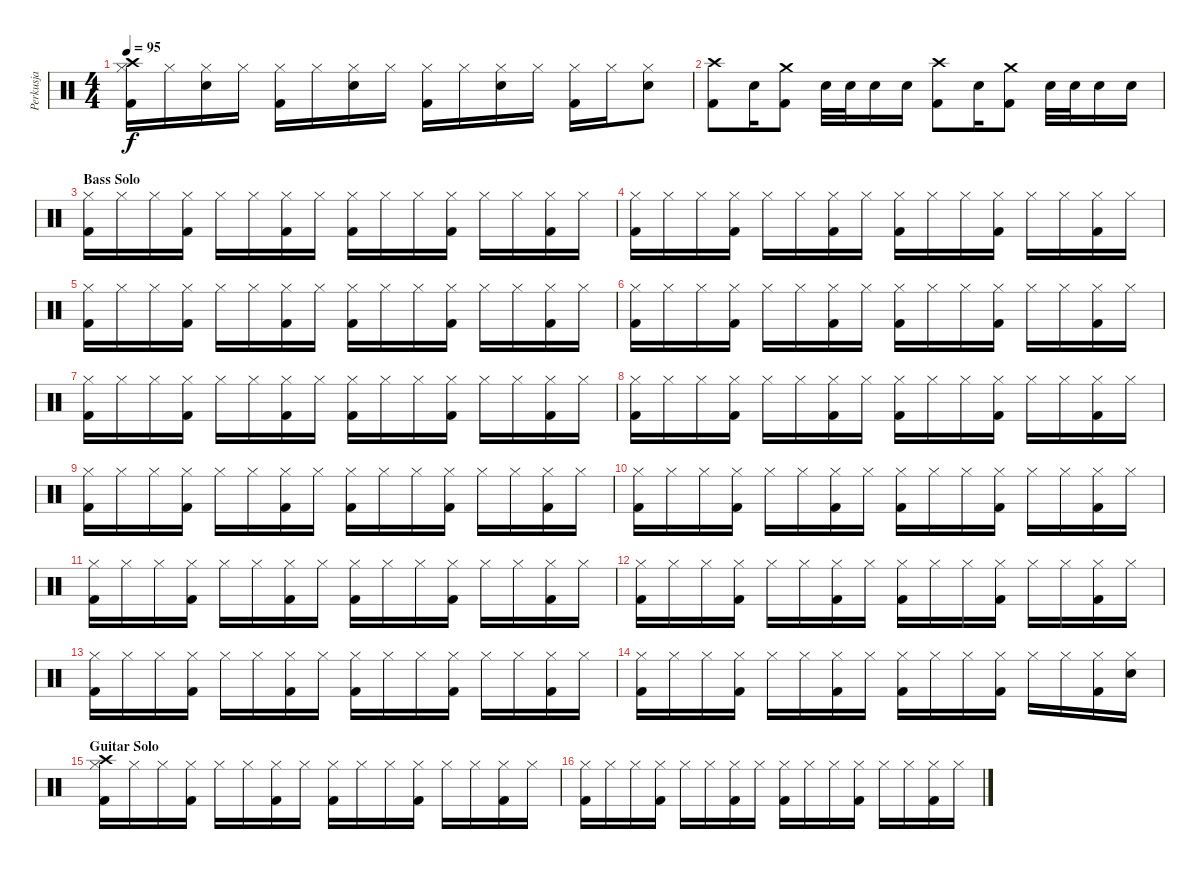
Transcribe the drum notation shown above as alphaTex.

\track ("Perkusja" "Perkusja") {instrument percussion}
\staff {score}
\articulation defaults
\ts (4 4)
\tempo 95
\clef neutral
\ks c
("Hi-Hat (closed)" "Kick (hit) 2" "Crash high (hit)").16{dy f} "Hi-Hat (closed)".16 ("Hi-Hat (closed)" "Snare (hit) 2").16 "Hi-Hat (closed)".16 ("Hi-Hat (closed)" "Kick (hit) 2").16 "Hi-Hat (closed)".16 ("Hi-Hat (closed)" "Snare (hit) 2").16 "Hi-Hat (closed)".16 ("Hi-Hat (closed)" "Kick (hit) 2").16 "Hi-Hat (closed)".16 ("Hi-Hat (closed)" "Snare (hit) 2").16 "Hi-Hat (closed)".16 ("Hi-Hat (closed)" "Kick (hit) 2").16 "Hi-Hat (closed)".16 ("Hi-Hat (closed)" "Snare (hit) 2").8 |
("Kick (hit) 2" "Crash high (hit)").8 "Snare (hit) 2".16 ("Kick (hit) 2" "Crash medium (hit)").8 "Snare (hit) 2".32 "Snare (hit) 2".32 "Snare (hit) 2".16 "Snare (hit) 2".16 ("Kick (hit) 2" "Crash high (hit)").8 "Snare (hit) 2".16 ("Kick (hit) 2" "Crash medium (hit)").8 "Snare (hit) 2".32 "Snare (hit) 2".32 "Snare (hit) 2".16 "Snare (hit) 2".16 |
\section ("" "Bass Solo")
("Hi-Hat (closed)" "Kick (hit) 2").16 "Hi-Hat (closed)".16 "Hi-Hat (closed)".16 ("Hi-Hat (closed)" "Kick (hit) 2").16 "Hi-Hat (closed)".16 "Hi-Hat (closed)".16 ("Hi-Hat (closed)" "Kick (hit) 2").16 "Hi-Hat (closed)".16 ("Hi-Hat (closed)" "Kick (hit) 2").16 "Hi-Hat (closed)".16 "Hi-Hat (closed)".16 ("Hi-Hat (closed)" "Kick (hit) 2").16 "Hi-Hat (closed)".16 "Hi-Hat (closed)".16 ("Hi-Hat (closed)" "Kick (hit) 2").16 "Hi-Hat (closed)".16 |
("Hi-Hat (closed)" "Kick (hit) 2").16 "Hi-Hat (closed)".16 "Hi-Hat (closed)".16 ("Hi-Hat (closed)" "Kick (hit) 2").16 "Hi-Hat (closed)".16 "Hi-Hat (closed)".16 ("Hi-Hat (closed)" "Kick (hit) 2").16 "Hi-Hat (closed)".16 ("Hi-Hat (closed)" "Kick (hit) 2").16 "Hi-Hat (closed)".16 "Hi-Hat (closed)".16 ("Hi-Hat (closed)" "Kick (hit) 2").16 "Hi-Hat (closed)".16 "Hi-Hat (closed)".16 ("Hi-Hat (closed)" "Kick (hit) 2").16 "Hi-Hat (closed)".16 |
("Hi-Hat (closed)" "Kick (hit) 2").16 "Hi-Hat (closed)".16 "Hi-Hat (closed)".16 ("Hi-Hat (closed)" "Kick (hit) 2").16 "Hi-Hat (closed)".16 "Hi-Hat (closed)".16 ("Hi-Hat (closed)" "Kick (hit) 2").16 "Hi-Hat (closed)".16 ("Hi-Hat (closed)" "Kick (hit) 2").16 "Hi-Hat (closed)".16 "Hi-Hat (closed)".16 ("Hi-Hat (closed)" "Kick (hit) 2").16 "Hi-Hat (closed)".16 "Hi-Hat (closed)".16 ("Hi-Hat (closed)" "Kick (hit) 2").16 "Hi-Hat (closed)".16 |
("Hi-Hat (closed)" "Kick (hit) 2").16 "Hi-Hat (closed)".16 "Hi-Hat (closed)".16 ("Hi-Hat (closed)" "Kick (hit) 2").16 "Hi-Hat (closed)".16 "Hi-Hat (closed)".16 ("Hi-Hat (closed)" "Kick (hit) 2").16 "Hi-Hat (closed)".16 ("Hi-Hat (closed)" "Kick (hit) 2").16 "Hi-Hat (closed)".16 "Hi-Hat (closed)".16 ("Hi-Hat (closed)" "Kick (hit) 2").16 "Hi-Hat (closed)".16 "Hi-Hat (closed)".16 ("Hi-Hat (closed)" "Kick (hit) 2").16 "Hi-Hat (closed)".16 |
("Hi-Hat (closed)" "Kick (hit) 2").16 "Hi-Hat (closed)".16 "Hi-Hat (closed)".16 ("Hi-Hat (closed)" "Kick (hit) 2").16 "Hi-Hat (closed)".16 "Hi-Hat (closed)".16 ("Hi-Hat (closed)" "Kick (hit) 2").16 "Hi-Hat (closed)".16 ("Hi-Hat (closed)" "Kick (hit) 2").16 "Hi-Hat (closed)".16 "Hi-Hat (closed)".16 ("Hi-Hat (closed)" "Kick (hit) 2").16 "Hi-Hat (closed)".16 "Hi-Hat (closed)".16 ("Hi-Hat (closed)" "Kick (hit) 2").16 "Hi-Hat (closed)".16 |
("Hi-Hat (closed)" "Kick (hit) 2").16 "Hi-Hat (closed)".16 "Hi-Hat (closed)".16 ("Hi-Hat (closed)" "Kick (hit) 2").16 "Hi-Hat (closed)".16 "Hi-Hat (closed)".16 ("Hi-Hat (closed)" "Kick (hit) 2").16 "Hi-Hat (closed)".16 ("Hi-Hat (closed)" "Kick (hit) 2").16 "Hi-Hat (closed)".16 "Hi-Hat (closed)".16 ("Hi-Hat (closed)" "Kick (hit) 2").16 "Hi-Hat (closed)".16 "Hi-Hat (closed)".16 ("Hi-Hat (closed)" "Kick (hit) 2").16 "Hi-Hat (closed)".16 |
("Hi-Hat (closed)" "Kick (hit) 2").16 "Hi-Hat (closed)".16 "Hi-Hat (closed)".16 ("Hi-Hat (closed)" "Kick (hit) 2").16 "Hi-Hat (closed)".16 "Hi-Hat (closed)".16 ("Hi-Hat (closed)" "Kick (hit) 2").16 "Hi-Hat (closed)".16 ("Hi-Hat (closed)" "Kick (hit) 2").16 "Hi-Hat (closed)".16 "Hi-Hat (closed)".16 ("Hi-Hat (closed)" "Kick (hit) 2").16 "Hi-Hat (closed)".16 "Hi-Hat (closed)".16 ("Hi-Hat (closed)" "Kick (hit) 2").16 "Hi-Hat (closed)".16 |
("Hi-Hat (closed)" "Kick (hit) 2").16 "Hi-Hat (closed)".16 "Hi-Hat (closed)".16 ("Hi-Hat (closed)" "Kick (hit) 2").16 "Hi-Hat (closed)".16 "Hi-Hat (closed)".16 ("Hi-Hat (closed)" "Kick (hit) 2").16 "Hi-Hat (closed)".16 ("Hi-Hat (closed)" "Kick (hit) 2").16 "Hi-Hat (closed)".16 "Hi-Hat (closed)".16 ("Hi-Hat (closed)" "Kick (hit) 2").16 "Hi-Hat (closed)".16 "Hi-Hat (closed)".16 ("Hi-Hat (closed)" "Kick (hit) 2").16 "Hi-Hat (closed)".16 |
("Hi-Hat (closed)" "Kick (hit) 2").16 "Hi-Hat (closed)".16 "Hi-Hat (closed)".16 ("Hi-Hat (closed)" "Kick (hit) 2").16 "Hi-Hat (closed)".16 "Hi-Hat (closed)".16 ("Hi-Hat (closed)" "Kick (hit) 2").16 "Hi-Hat (closed)".16 ("Hi-Hat (closed)" "Kick (hit) 2").16 "Hi-Hat (closed)".16 "Hi-Hat (closed)".16 ("Hi-Hat (closed)" "Kick (hit) 2").16 "Hi-Hat (closed)".16 "Hi-Hat (closed)".16 ("Hi-Hat (closed)" "Kick (hit) 2").16 "Hi-Hat (closed)".16 |
("Hi-Hat (closed)" "Kick (hit) 2").16 "Hi-Hat (closed)".16 "Hi-Hat (closed)".16 ("Hi-Hat (closed)" "Kick (hit) 2").16 "Hi-Hat (closed)".16 "Hi-Hat (closed)".16 ("Hi-Hat (closed)" "Kick (hit) 2").16 "Hi-Hat (closed)".16 ("Hi-Hat (closed)" "Kick (hit) 2").16 "Hi-Hat (closed)".16 "Hi-Hat (closed)".16 ("Hi-Hat (closed)" "Kick (hit) 2").16 "Hi-Hat (closed)".16 "Hi-Hat (closed)".16 ("Hi-Hat (closed)" "Kick (hit) 2").16 "Hi-Hat (closed)".16 |
("Hi-Hat (closed)" "Kick (hit) 2").16 "Hi-Hat (closed)".16 "Hi-Hat (closed)".16 ("Hi-Hat (closed)" "Kick (hit) 2").16 "Hi-Hat (closed)".16 "Hi-Hat (closed)".16 ("Hi-Hat (closed)" "Kick (hit) 2").16 "Hi-Hat (closed)".16 ("Hi-Hat (closed)" "Kick (hit) 2").16 "Hi-Hat (closed)".16 "Hi-Hat (closed)".16 ("Hi-Hat (closed)" "Kick (hit) 2").16 "Hi-Hat (closed)".16 "Hi-Hat (closed)".16 ("Hi-Hat (closed)" "Kick (hit) 2").16 "Hi-Hat (closed)".16 |
("Hi-Hat (closed)" "Kick (hit) 2").16 "Hi-Hat (closed)".16 "Hi-Hat (closed)".16 ("Hi-Hat (closed)" "Kick (hit) 2").16 "Hi-Hat (closed)".16 "Hi-Hat (closed)".16 ("Hi-Hat (closed)" "Kick (hit) 2").16 "Hi-Hat (closed)".16 ("Hi-Hat (closed)" "Kick (hit) 2").16 "Hi-Hat (closed)".16 "Hi-Hat (closed)".16 ("Hi-Hat (closed)" "Kick (hit) 2").16 "Hi-Hat (closed)".16 "Hi-Hat (closed)".16 ("Hi-Hat (closed)" "Kick (hit) 2").16 ("Hi-Hat (closed)" "Snare (hit) 2").16 |
\section ("" "Guitar Solo")
("Hi-Hat (closed)" "Kick (hit) 2" "Crash high (hit)").16 "Hi-Hat (closed)".16 "Hi-Hat (closed)".16 ("Hi-Hat (closed)" "Kick (hit) 2").16 "Hi-Hat (closed)".16 "Hi-Hat (closed)".16 ("Hi-Hat (closed)" "Kick (hit) 2").16 "Hi-Hat (closed)".16 ("Hi-Hat (closed)" "Kick (hit) 2").16 "Hi-Hat (closed)".16 "Hi-Hat (closed)".16 ("Hi-Hat (closed)" "Kick (hit) 2").16 "Hi-Hat (closed)".16 "Hi-Hat (closed)".16 ("Hi-Hat (closed)" "Kick (hit) 2").16 "Hi-Hat (closed)".16 |
("Hi-Hat (closed)" "Kick (hit) 2").16 "Hi-Hat (closed)".16 "Hi-Hat (closed)".16 ("Hi-Hat (closed)" "Kick (hit) 2").16 "Hi-Hat (closed)".16 "Hi-Hat (closed)".16 ("Hi-Hat (closed)" "Kick (hit) 2").16 "Hi-Hat (closed)".16 ("Hi-Hat (closed)" "Kick (hit) 2").16 "Hi-Hat (closed)".16 "Hi-Hat (closed)".16 ("Hi-Hat (closed)" "Kick (hit) 2").16 "Hi-Hat (closed)".16 "Hi-Hat (closed)".16 ("Hi-Hat (closed)" "Kick (hit) 2").16 "Hi-Hat (closed)".16
